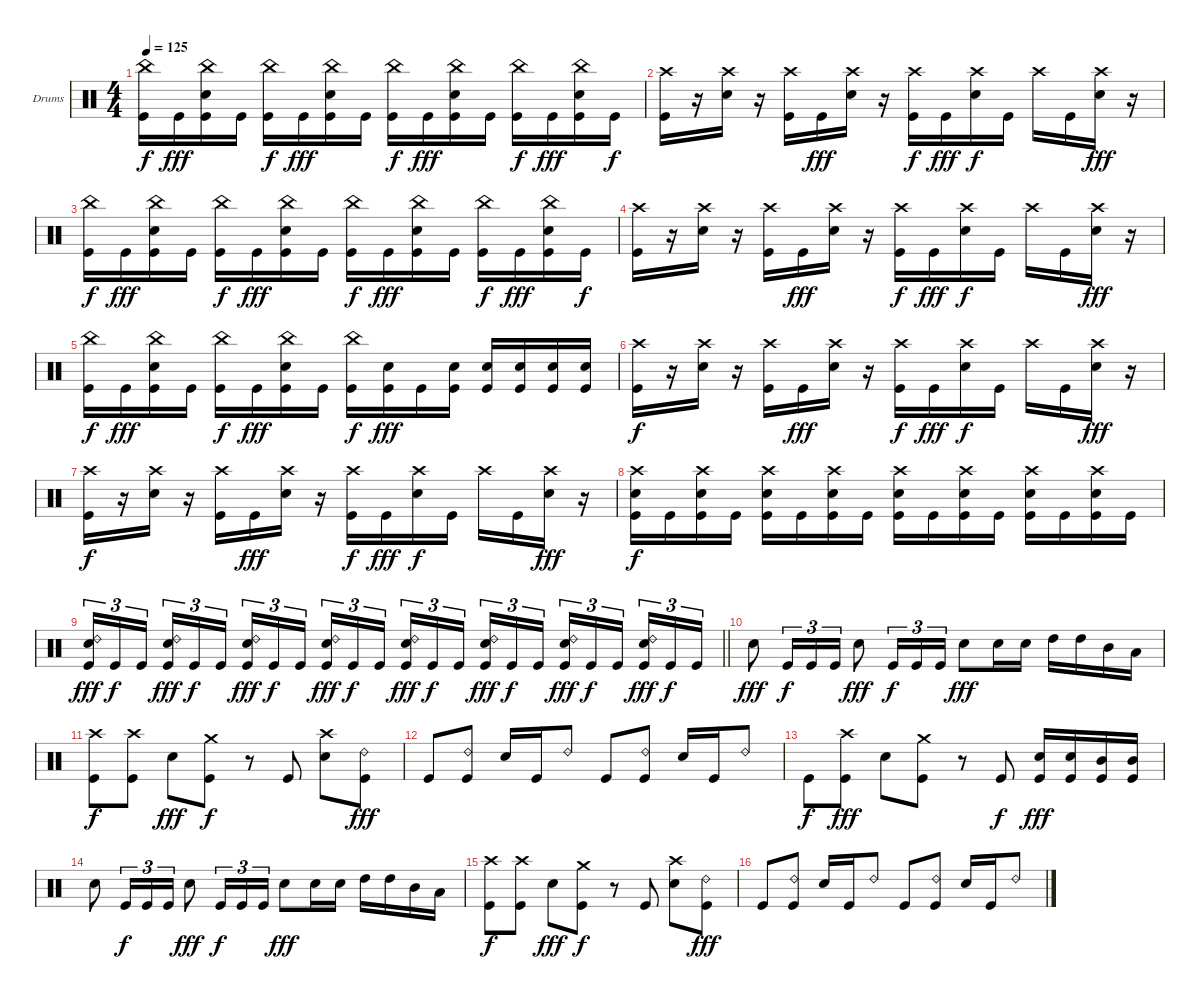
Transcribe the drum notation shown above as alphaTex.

\bracketExtendMode groupsimilarinstruments
\firstSystemTrackNameOrientation horizontal
\otherSystemsTrackNameOrientation horizontal
\track ("Drumkit" "Drums") {instrument percussion}
\staff {score}
\articulation defaults
\ts (4 4)
\tempo 125
\clef neutral
\ks c
("China (hit)" "Kick (hit)").16{dy f} "Kick (hit)".16{dy fff} ("China (hit)" "Snare (hit) 2" "Kick (hit)").16 "Kick (hit)".16 ("China (hit)" "Kick (hit)").16{dy f} "Kick (hit)".16{dy fff} ("China (hit)" "Snare (hit) 2" "Kick (hit)").16 "Kick (hit)".16 ("China (hit)" "Kick (hit)").16{dy f} "Kick (hit)".16{dy fff} ("China (hit)" "Snare (hit) 2" "Kick (hit)").16 "Kick (hit)".16 ("China (hit)" "Kick (hit)").16{dy f} "Kick (hit)".16{dy fff} ("China (hit)" "Snare (hit) 2" "Kick (hit)").16 "Kick (hit)".16{dy f} |
("Crash high (hit)" "Kick (hit)").16 r.16 ("Crash high (hit)" "Snare (hit) 2").16 r.16 ("Crash high (hit)" "Kick (hit)").16 "Kick (hit)".16{dy fff} ("Crash high (hit)" "Snare (hit) 2").16 r.16 ("Crash high (hit)" "Kick (hit)").16{dy f} "Kick (hit)".16{dy fff} ("Crash high (hit)" "Snare (hit) 2").16{dy f} "Kick (hit)".16 "Crash high (hit)".16 "Kick (hit)".16 ("Crash high (hit)" "Snare (hit) 2").16{dy fff} r.16 |
("China (hit)" "Kick (hit)").16{dy f} "Kick (hit)".16{dy fff} ("China (hit)" "Snare (hit) 2" "Kick (hit)").16 "Kick (hit)".16 ("China (hit)" "Kick (hit)").16{dy f} "Kick (hit)".16{dy fff} ("China (hit)" "Snare (hit) 2" "Kick (hit)").16 "Kick (hit)".16 ("China (hit)" "Kick (hit)").16{dy f} "Kick (hit)".16{dy fff} ("China (hit)" "Snare (hit) 2" "Kick (hit)").16 "Kick (hit)".16 ("China (hit)" "Kick (hit)").16{dy f} "Kick (hit)".16{dy fff} ("China (hit)" "Snare (hit) 2" "Kick (hit)").16 "Kick (hit)".16{dy f} |
("Crash high (hit)" "Kick (hit)").16 r.16 ("Crash high (hit)" "Snare (hit) 2").16 r.16 ("Crash high (hit)" "Kick (hit)").16 "Kick (hit)".16{dy fff} ("Crash high (hit)" "Snare (hit) 2").16 r.16 ("Crash high (hit)" "Kick (hit)").16{dy f} "Kick (hit)".16{dy fff} ("Crash high (hit)" "Snare (hit) 2").16{dy f} "Kick (hit)".16 "Crash high (hit)".16 "Kick (hit)".16 ("Crash high (hit)" "Snare (hit) 2").16{dy fff} r.16 |
("China (hit)" "Kick (hit)").16{dy f} "Kick (hit)".16{dy fff} ("China (hit)" "Snare (hit) 2" "Kick (hit)").16 "Kick (hit)".16 ("China (hit)" "Kick (hit)").16{dy f} "Kick (hit)".16{dy fff} ("China (hit)" "Snare (hit) 2" "Kick (hit)").16 "Kick (hit)".16 ("China (hit)" "Kick (hit)").16{dy f} ("Snare (hit) 2" "Kick (hit)").16{dy fff} "Kick (hit)".16 ("Snare (hit) 2" "Kick (hit)").16 ("Snare (hit) 2" "Kick (hit)").16 ("Snare (hit) 2" "Kick (hit)").16 ("Snare (hit) 2" "Kick (hit)").16 ("Snare (hit) 2" "Kick (hit)").16 |
("Crash high (hit)" "Kick (hit)").16{dy f} r.16 ("Crash high (hit)" "Snare (hit) 2").16 r.16 ("Crash high (hit)" "Kick (hit)").16 "Kick (hit)".16{dy fff} ("Crash high (hit)" "Snare (hit) 2").16 r.16 ("Crash high (hit)" "Kick (hit)").16{dy f} "Kick (hit)".16{dy fff} ("Crash high (hit)" "Snare (hit) 2").16{dy f} "Kick (hit)".16 "Crash high (hit)".16 "Kick (hit)".16 ("Crash high (hit)" "Snare (hit) 2").16{dy fff} r.16 |
("Crash high (hit)" "Kick (hit)").16{dy f} r.16 ("Crash high (hit)" "Snare (hit) 2").16 r.16 ("Crash high (hit)" "Kick (hit)").16 "Kick (hit)".16{dy fff} ("Crash high (hit)" "Snare (hit) 2").16 r.16 ("Crash high (hit)" "Kick (hit)").16{dy f} "Kick (hit)".16{dy fff} ("Crash high (hit)" "Snare (hit) 2").16{dy f} "Kick (hit)".16 "Crash high (hit)".16 "Kick (hit)".16 ("Crash high (hit)" "Snare (hit) 2").16{dy fff} r.16 |
("Crash high (hit)" "Snare (hit) 2" "Kick (hit)").16{dy f} "Kick (hit)".16 ("Crash high (hit)" "Snare (hit) 2" "Kick (hit)").16 "Kick (hit)".16 ("Crash high (hit)" "Snare (hit) 2" "Kick (hit)").16 "Kick (hit)".16 ("Crash high (hit)" "Snare (hit) 2" "Kick (hit)").16 "Kick (hit)".16 ("Crash high (hit)" "Snare (hit) 2" "Kick (hit)").16 "Kick (hit)".16 ("Crash high (hit)" "Snare (hit) 2" "Kick (hit)").16 "Kick (hit)".16 ("Crash high (hit)" "Snare (hit) 2" "Kick (hit)").16 "Kick (hit)".16 ("Crash high (hit)" "Snare (hit) 2" "Kick (hit)").16 "Kick (hit)".16 |
\barLineRight lightlight
("Ride (bell) 2" "Snare (hit) 2" "Kick (hit)").16{tu (3 2) dy fff} "Kick (hit)".16{tu (3 2) dy f} "Kick (hit)".16{tu (3 2)} ("Ride (bell) 2" "Snare (hit) 2" "Kick (hit)").16{tu (3 2) dy fff} "Kick (hit)".16{tu (3 2) dy f} "Kick (hit)".16{tu (3 2)} ("Ride (bell) 2" "Snare (hit) 2" "Kick (hit)").16{tu (3 2) dy fff} "Kick (hit)".16{tu (3 2) dy f} "Kick (hit)".16{tu (3 2)} ("Ride (bell) 2" "Snare (hit) 2" "Kick (hit)").16{tu (3 2) dy fff} "Kick (hit)".16{tu (3 2) dy f} "Kick (hit)".16{tu (3 2)} ("Ride (bell) 2" "Snare (hit) 2" "Kick (hit)").16{tu (3 2) dy fff} "Kick (hit)".16{tu (3 2) dy f} "Kick (hit)".16{tu (3 2)} ("Ride (bell) 2" "Snare (hit) 2" "Kick (hit)").16{tu (3 2) dy fff} "Kick (hit)".16{tu (3 2) dy f} "Kick (hit)".16{tu (3 2)} ("Ride (bell) 2" "Snare (hit) 2" "Kick (hit)").16{tu (3 2) dy fff} "Kick (hit)".16{tu (3 2) dy f} "Kick (hit)".16{tu (3 2)} ("Ride (bell) 2" "Snare (hit) 2" "Kick (hit)").16{tu (3 2) dy fff} "Kick (hit)".16{tu (3 2) dy f} "Kick (hit)".16{tu (3 2)} |
"Snare (hit) 2".8{dy fff} "Kick (hit)".16{tu (3 2) dy f} "Kick (hit)".16{tu (3 2)} "Kick (hit)".16{tu (3 2)} "Snare (hit) 2".8{dy fff} "Kick (hit)".16{tu (3 2) dy f} "Kick (hit)".16{tu (3 2)} "Kick (hit)".16{tu (3 2)} "Snare (hit) 2".8{dy fff} "Snare (hit) 2".16 "Snare (hit) 2".16 "High Tom (hit)".16 "High Tom (hit)".16 "Mid Tom (hit)".16 "Low Tom (hit)".16 |
("Crash high (hit)" "Kick (hit)").8{dy f} ("Crash high (hit)" "Kick (hit)").8 "Snare (hit) 2".8{dy fff} ("Crash medium (hit)" "Kick (hit)").8{dy f} r.8 "Kick (hit)".8 ("Crash high (hit)" "Snare (hit) 2").8 ("Ride (bell) 2" "Kick (hit)").8{dy fff} |
"Kick (hit)".8 ("Ride (bell) 2" "Kick (hit)").8 "Snare (hit) 2".16 "Kick (hit)".16 "Ride (bell) 2".8 "Kick (hit)".8 ("Ride (bell) 2" "Kick (hit)").8 "Snare (hit) 2".16 "Kick (hit)".16 "Ride (bell) 2".8 |
"Kick (hit)".8{dy f} ("Crash high (hit)" "Kick (hit)").8{dy fff} "Snare (hit) 2".8 ("Crash medium (hit)" "Kick (hit)").8 r.8 "Kick (hit)".8{dy f} ("Snare (hit) 2" "Kick (hit)").16{dy fff} ("Snare (hit) 2" "Kick (hit)").16 ("Mid Tom (hit)" "Kick (hit)").16 ("Mid Tom (hit)" "Kick (hit)").16 |
"Snare (hit) 2".8 "Kick (hit)".16{tu (3 2) dy f} "Kick (hit)".16{tu (3 2)} "Kick (hit)".16{tu (3 2)} "Snare (hit) 2".8{dy fff} "Kick (hit)".16{tu (3 2) dy f} "Kick (hit)".16{tu (3 2)} "Kick (hit)".16{tu (3 2)} "Snare (hit) 2".8{dy fff} "Snare (hit) 2".16 "Snare (hit) 2".16 "High Tom (hit)".16 "High Tom (hit)".16 "Mid Tom (hit)".16 "Low Tom (hit)".16 |
("Crash high (hit)" "Kick (hit)").8{dy f} ("Crash high (hit)" "Kick (hit)").8 "Snare (hit) 2".8{dy fff} ("Crash medium (hit)" "Kick (hit)").8{dy f} r.8 "Kick (hit)".8 ("Crash high (hit)" "Snare (hit) 2").8 ("Ride (bell) 2" "Kick (hit)").8{dy fff} |
"Kick (hit)".8 ("Ride (bell) 2" "Kick (hit)").8 "Snare (hit) 2".16 "Kick (hit)".16 "Ride (bell) 2".8 "Kick (hit)".8 ("Ride (bell) 2" "Kick (hit)").8 "Snare (hit) 2".16 "Kick (hit)".16 "Ride (bell) 2".8
